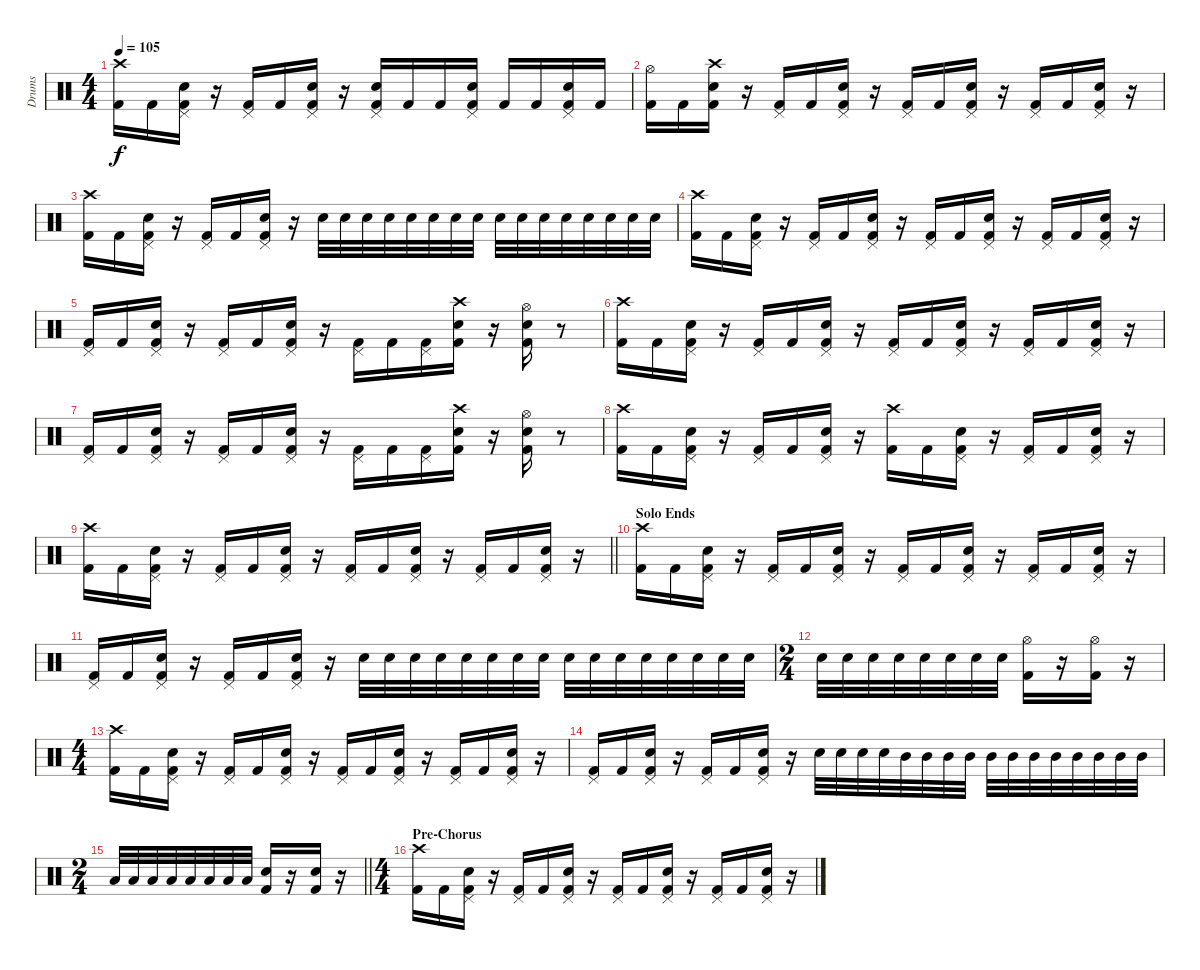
\track ("Drums" "Drums") {instrument percussion}
\staff {score}
\articulation defaults
\ts (4 4)
\tempo 105
\clef neutral
\ks c
("Crash high (hit)" "Kick (hit) 2").16{dy f} "Kick (hit) 2".16 ("Pedal Hi-Hat (hit)" "Snare (hit) 2" "Kick (hit) 2").16 r.16 ("Pedal Hi-Hat (hit)" "Kick (hit) 2").16 "Kick (hit) 2".16 ("Pedal Hi-Hat (hit)" "Snare (hit) 2" "Kick (hit) 2").16 r.16 ("Pedal Hi-Hat (hit)" "Snare (hit) 2" "Kick (hit) 2").16 "Kick (hit) 2".16 "Kick (hit) 2".16 ("Pedal Hi-Hat (hit)" "Snare (hit) 2" "Kick (hit) 2").16 "Kick (hit) 2".16 "Kick (hit) 2".16 ("Pedal Hi-Hat (hit)" "Snare (hit) 2" "Kick (hit) 2").16 "Kick (hit) 2".16 |
("Hi-Hat (open)" "Kick (hit) 2").16 "Kick (hit) 2".16 ("Crash high (hit)" "Snare (hit) 2" "Kick (hit) 2").16 r.16 ("Pedal Hi-Hat (hit)" "Kick (hit) 2").16 "Kick (hit) 2".16 ("Pedal Hi-Hat (hit)" "Snare (hit) 2" "Kick (hit) 2").16 r.16 ("Pedal Hi-Hat (hit)" "Kick (hit) 2").16 "Kick (hit) 2".16 ("Pedal Hi-Hat (hit)" "Snare (hit) 2" "Kick (hit) 2").16 r.16 ("Pedal Hi-Hat (hit)" "Kick (hit) 2").16 "Kick (hit) 2".16 ("Pedal Hi-Hat (hit)" "Snare (hit) 2" "Kick (hit) 2").16 r.16 |
("Crash high (hit)" "Kick (hit) 2").16 "Kick (hit) 2".16 ("Pedal Hi-Hat (hit)" "Snare (hit) 2" "Kick (hit) 2").16 r.16 ("Pedal Hi-Hat (hit)" "Kick (hit) 2").16 "Kick (hit) 2".16 ("Pedal Hi-Hat (hit)" "Snare (hit) 2" "Kick (hit) 2").16 r.16 "Snare (hit) 2".32 "Snare (hit) 2".32 "Snare (hit) 2".32 "Snare (hit) 2".32 "Snare (hit) 2".32 "Snare (hit) 2".32 "Snare (hit) 2".32 "Snare (hit) 2".32 "Snare (hit) 2".32 "Snare (hit) 2".32 "Snare (hit) 2".32 "Snare (hit) 2".32 "Snare (hit) 2".32 "Snare (hit) 2".32 "Snare (hit) 2".32 "Snare (hit) 2".32 |
("Crash high (hit)" "Kick (hit) 2").16 "Kick (hit) 2".16 ("Pedal Hi-Hat (hit)" "Snare (hit) 2" "Kick (hit) 2").16 r.16 ("Pedal Hi-Hat (hit)" "Kick (hit) 2").16 "Kick (hit) 2".16 ("Pedal Hi-Hat (hit)" "Snare (hit) 2" "Kick (hit) 2").16 r.16 ("Pedal Hi-Hat (hit)" "Kick (hit) 2").16 "Kick (hit) 2".16 ("Pedal Hi-Hat (hit)" "Snare (hit) 2" "Kick (hit) 2").16 r.16 ("Pedal Hi-Hat (hit)" "Kick (hit) 2").16 "Kick (hit) 2".16 ("Pedal Hi-Hat (hit)" "Snare (hit) 2" "Kick (hit) 2").16 r.16 |
("Pedal Hi-Hat (hit)" "Kick (hit) 2").16 "Kick (hit) 2".16 ("Pedal Hi-Hat (hit)" "Snare (hit) 2" "Kick (hit) 2").16 r.16 ("Pedal Hi-Hat (hit)" "Kick (hit) 2").16 "Kick (hit) 2".16 ("Pedal Hi-Hat (hit)" "Snare (hit) 2" "Kick (hit) 2").16 r.16 ("Pedal Hi-Hat (hit)" "Kick (hit) 2").16 "Kick (hit) 2".16 ("Pedal Hi-Hat (hit)" "Kick (hit) 2").16 ("Crash high (hit)" "Snare (hit) 2" "Kick (hit) 2").16 r.16 ("Hi-Hat (open)" "Snare (hit) 2" "Kick (hit) 2").16 r.8 |
("Crash high (hit)" "Kick (hit) 2").16 "Kick (hit) 2".16 ("Pedal Hi-Hat (hit)" "Snare (hit) 2" "Kick (hit) 2").16 r.16 ("Pedal Hi-Hat (hit)" "Kick (hit) 2").16 "Kick (hit) 2".16 ("Pedal Hi-Hat (hit)" "Snare (hit) 2" "Kick (hit) 2").16 r.16 ("Pedal Hi-Hat (hit)" "Kick (hit) 2").16 "Kick (hit) 2".16 ("Pedal Hi-Hat (hit)" "Snare (hit) 2" "Kick (hit) 2").16 r.16 ("Pedal Hi-Hat (hit)" "Kick (hit) 2").16 "Kick (hit) 2".16 ("Pedal Hi-Hat (hit)" "Snare (hit) 2" "Kick (hit) 2").16 r.16 |
("Pedal Hi-Hat (hit)" "Kick (hit) 2").16 "Kick (hit) 2".16 ("Pedal Hi-Hat (hit)" "Snare (hit) 2" "Kick (hit) 2").16 r.16 ("Pedal Hi-Hat (hit)" "Kick (hit) 2").16 "Kick (hit) 2".16 ("Pedal Hi-Hat (hit)" "Snare (hit) 2" "Kick (hit) 2").16 r.16 ("Pedal Hi-Hat (hit)" "Kick (hit) 2").16 "Kick (hit) 2".16 ("Pedal Hi-Hat (hit)" "Kick (hit) 2").16 ("Crash high (hit)" "Snare (hit) 2" "Kick (hit) 2").16 r.16 ("Hi-Hat (open)" "Snare (hit) 2" "Kick (hit) 2").16 r.8 |
("Crash high (hit)" "Kick (hit) 2").16 "Kick (hit) 2".16 ("Pedal Hi-Hat (hit)" "Snare (hit) 2" "Kick (hit) 2").16 r.16 ("Pedal Hi-Hat (hit)" "Kick (hit) 2").16 "Kick (hit) 2".16 ("Pedal Hi-Hat (hit)" "Snare (hit) 2" "Kick (hit) 2").16 r.16 ("Crash high (hit)" "Kick (hit) 2").16 "Kick (hit) 2".16 ("Pedal Hi-Hat (hit)" "Snare (hit) 2" "Kick (hit) 2").16 r.16 ("Pedal Hi-Hat (hit)" "Kick (hit) 2").16 "Kick (hit) 2".16 ("Pedal Hi-Hat (hit)" "Snare (hit) 2" "Kick (hit) 2").16 r.16 |
\barLineRight lightlight
("Crash high (hit)" "Kick (hit) 2").16 "Kick (hit) 2".16 ("Pedal Hi-Hat (hit)" "Snare (hit) 2" "Kick (hit) 2").16 r.16 ("Pedal Hi-Hat (hit)" "Kick (hit) 2").16 "Kick (hit) 2".16 ("Pedal Hi-Hat (hit)" "Snare (hit) 2" "Kick (hit) 2").16 r.16 ("Pedal Hi-Hat (hit)" "Kick (hit) 2").16 "Kick (hit) 2".16 ("Pedal Hi-Hat (hit)" "Snare (hit) 2" "Kick (hit) 2").16 r.16 ("Pedal Hi-Hat (hit)" "Kick (hit) 2").16 "Kick (hit) 2".16 ("Pedal Hi-Hat (hit)" "Snare (hit) 2" "Kick (hit) 2").16 r.16 |
\section ("" "Solo Ends")
("Crash high (hit)" "Kick (hit) 2").16 "Kick (hit) 2".16 ("Pedal Hi-Hat (hit)" "Snare (hit) 2" "Kick (hit) 2").16 r.16 ("Pedal Hi-Hat (hit)" "Kick (hit) 2").16 "Kick (hit) 2".16 ("Pedal Hi-Hat (hit)" "Snare (hit) 2" "Kick (hit) 2").16 r.16 ("Pedal Hi-Hat (hit)" "Kick (hit) 2").16 "Kick (hit) 2".16 ("Pedal Hi-Hat (hit)" "Snare (hit) 2" "Kick (hit) 2").16 r.16 ("Pedal Hi-Hat (hit)" "Kick (hit) 2").16 "Kick (hit) 2".16 ("Pedal Hi-Hat (hit)" "Snare (hit) 2" "Kick (hit) 2").16 r.16 |
("Pedal Hi-Hat (hit)" "Kick (hit) 2").16 "Kick (hit) 2".16 ("Pedal Hi-Hat (hit)" "Snare (hit) 2" "Kick (hit) 2").16 r.16 ("Pedal Hi-Hat (hit)" "Kick (hit) 2").16 "Kick (hit) 2".16 ("Pedal Hi-Hat (hit)" "Snare (hit) 2" "Kick (hit) 2").16 r.16 "Snare (hit) 2".32 "Snare (hit) 2".32 "Snare (hit) 2".32 "Snare (hit) 2".32 "Snare (hit) 2".32 "Snare (hit) 2".32 "Snare (hit) 2".32 "Snare (hit) 2".32 "Snare (hit) 2".32 "Snare (hit) 2".32 "Snare (hit) 2".32 "Snare (hit) 2".32 "Snare (hit) 2".32 "Snare (hit) 2".32 "Snare (hit) 2".32 "Snare (hit) 2".32 |
\ts (2 4)
"Snare (hit) 2".32 "Snare (hit) 2".32 "Snare (hit) 2".32 "Snare (hit) 2".32 "Snare (hit) 2".32 "Snare (hit) 2".32 "Snare (hit) 2".32 "Snare (hit) 2".32 ("Hi-Hat (open)" "Kick (hit) 2").16 r.16 ("Hi-Hat (open)" "Kick (hit) 2").16 r.16 |
\ts (4 4)
("Crash high (hit)" "Kick (hit) 2").16 "Kick (hit) 2".16 ("Pedal Hi-Hat (hit)" "Snare (hit) 2" "Kick (hit) 2").16 r.16 ("Pedal Hi-Hat (hit)" "Kick (hit) 2").16 "Kick (hit) 2".16 ("Pedal Hi-Hat (hit)" "Snare (hit) 2" "Kick (hit) 2").16 r.16 ("Pedal Hi-Hat (hit)" "Kick (hit) 2").16 "Kick (hit) 2".16 ("Pedal Hi-Hat (hit)" "Snare (hit) 2" "Kick (hit) 2").16 r.16 ("Pedal Hi-Hat (hit)" "Kick (hit) 2").16 "Kick (hit) 2".16 ("Pedal Hi-Hat (hit)" "Snare (hit) 2" "Kick (hit) 2").16 r.16 |
("Pedal Hi-Hat (hit)" "Kick (hit) 2").16 "Kick (hit) 2".16 ("Pedal Hi-Hat (hit)" "Snare (hit) 2" "Kick (hit) 2").16 r.16 ("Pedal Hi-Hat (hit)" "Kick (hit) 2").16 "Kick (hit) 2".16 ("Pedal Hi-Hat (hit)" "Snare (hit) 2" "Kick (hit) 2").16 r.16 "Snare (hit) 2".32 "Snare (hit) 2".32 "Snare (hit) 2".32 "Snare (hit) 2".32 "Mid Tom (hit)".32 "Mid Tom (hit)".32 "Mid Tom (hit)".32 "Mid Tom (hit)".32 "Mid Tom (hit)".32 "Mid Tom (hit)".32 "Mid Tom (hit)".32 "Mid Tom (hit)".32 "Mid Tom (hit)".32 "Mid Tom (hit)".32 "Mid Tom (hit)".32 "Mid Tom (hit)".32 |
\ts (2 4)
\barLineRight lightlight "Low Tom (hit)".32 "Low Tom (hit)".32 "Low Tom (hit)".32 "Low Tom (hit)".32 "Low Tom (hit)".32 "Low Tom (hit)".32 "Low Tom (hit)".32 "Low Tom (hit)".32
("Snare (hit) 2" "Kick (hit) 2").16 r.16 ("Snare (hit) 2" "Kick (hit) 2").16 r.16 |
\ts (4 4)
\section ("" "Pre-Chorus")
("Crash high (hit)" "Kick (hit) 2").16 "Kick (hit) 2".16 ("Pedal Hi-Hat (hit)" "Snare (hit) 2" "Kick (hit) 2").16 r.16 ("Pedal Hi-Hat (hit)" "Kick (hit) 2").16 "Kick (hit) 2".16 ("Pedal Hi-Hat (hit)" "Snare (hit) 2" "Kick (hit) 2").16 r.16 ("Pedal Hi-Hat (hit)" "Kick (hit) 2").16 "Kick (hit) 2".16 ("Pedal Hi-Hat (hit)" "Snare (hit) 2" "Kick (hit) 2").16 r.16 ("Pedal Hi-Hat (hit)" "Kick (hit) 2").16 "Kick (hit) 2".16 ("Pedal Hi-Hat (hit)" "Snare (hit) 2" "Kick (hit) 2").16 r.16
